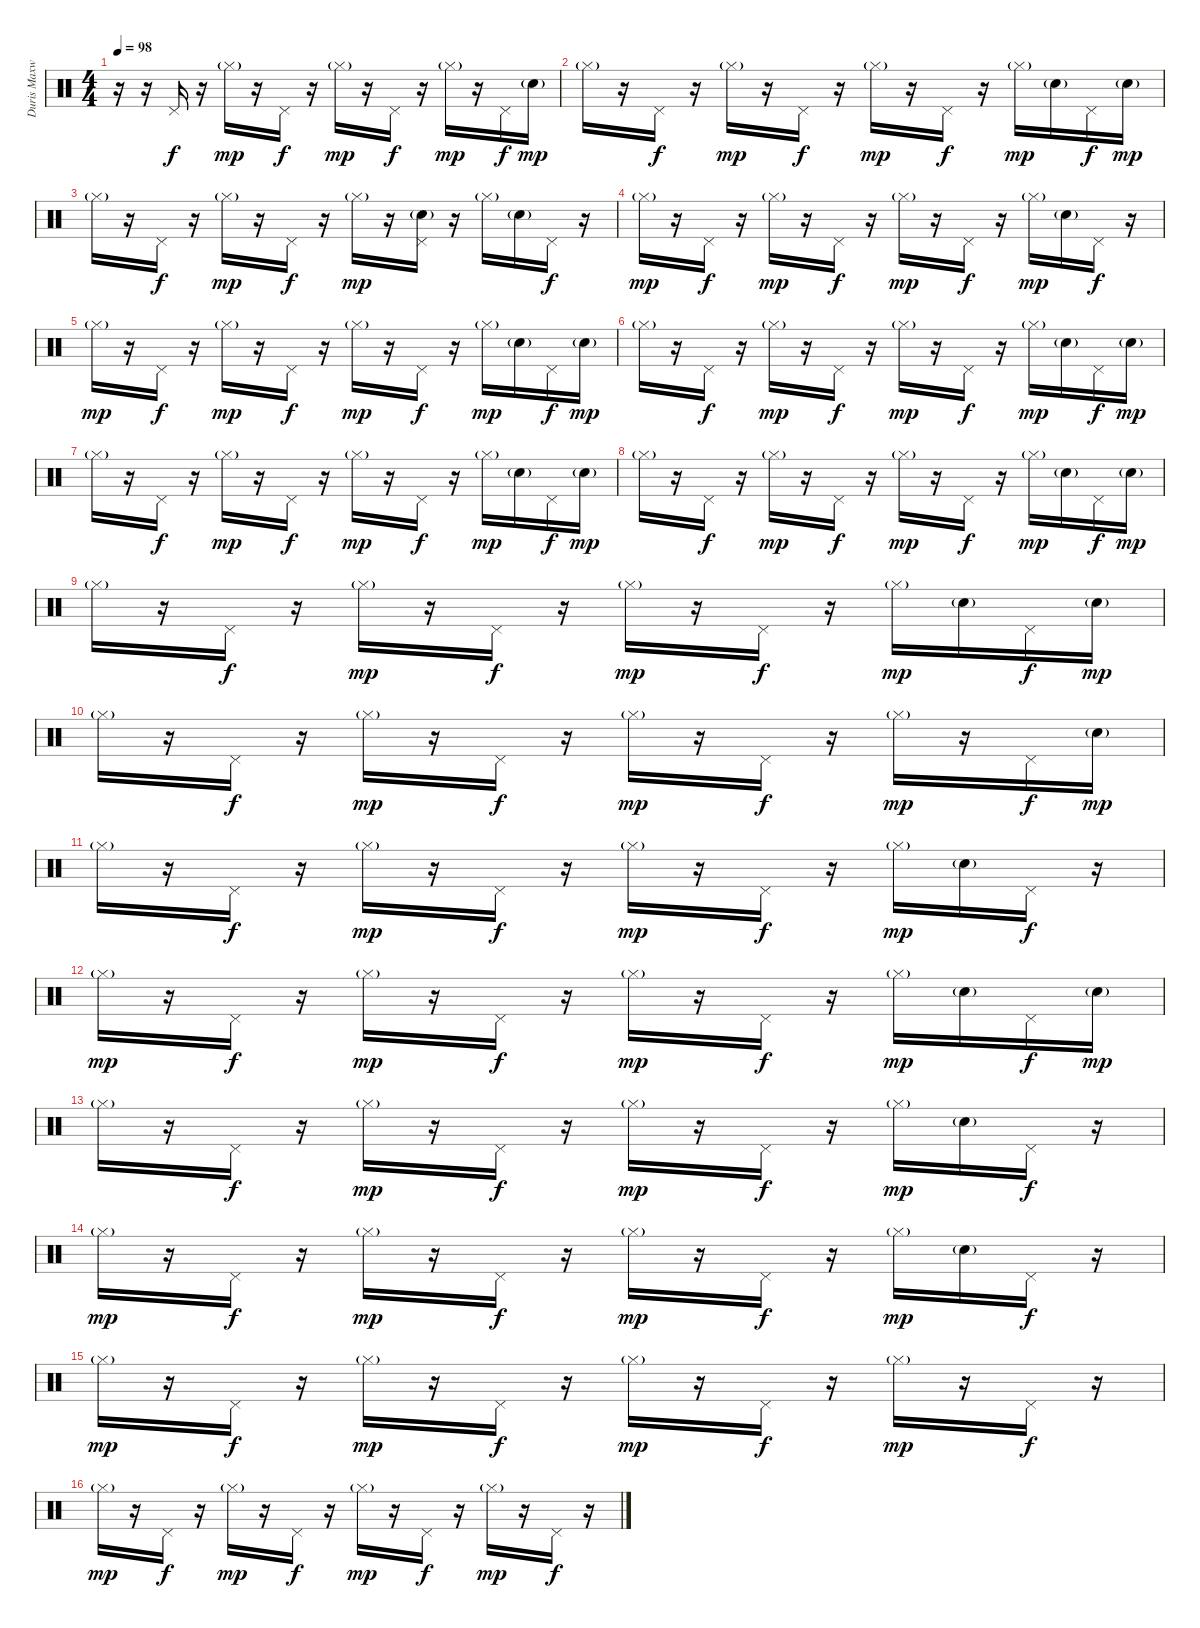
\track ("Duris Maxwell" "Duris Maxw") {instrument percussion}
\staff {score}
\articulation defaults
\ts (4 4)
\tempo 98
\clef neutral
\ks c
r.16{dy mp} r.16 "Pedal Hi-Hat (hit)".16{dy f} r.16 "Hi-Hat (closed)"{g}.16{dy mp} r.16 "Pedal Hi-Hat (hit)".16{dy f} r.16 "Hi-Hat (closed)"{g}.16{dy mp} r.16 "Pedal Hi-Hat (hit)".16{dy f} r.16 "Hi-Hat (closed)"{g}.16{dy mp} r.16 "Pedal Hi-Hat (hit)".16{dy f} "Snare (hit) 2"{g}.16{dy mp} |
"Hi-Hat (closed)"{g}.16 r.16 "Pedal Hi-Hat (hit)".16{dy f} r.16 "Hi-Hat (closed)"{g}.16{dy mp} r.16 "Pedal Hi-Hat (hit)".16{dy f} r.16 "Hi-Hat (closed)"{g}.16{dy mp} r.16 "Pedal Hi-Hat (hit)".16{dy f} r.16 "Hi-Hat (closed)"{g}.16{dy mp} "Snare (hit) 2"{g}.16 "Pedal Hi-Hat (hit)".16{dy f} "Snare (hit) 2"{g}.16{dy mp} |
"Hi-Hat (closed)"{g}.16 r.16 "Pedal Hi-Hat (hit)".16{dy f} r.16 "Hi-Hat (closed)"{g}.16{dy mp} r.16 "Pedal Hi-Hat (hit)".16{dy f} r.16 "Hi-Hat (closed)"{g}.16{dy mp} r.16 ("Pedal Hi-Hat (hit)" "Snare (hit) 2"{g}).16 r.16 "Hi-Hat (closed)"{g}.16 "Snare (hit) 2"{g}.16 "Pedal Hi-Hat (hit)".16{dy f} r.16 |
"Hi-Hat (closed)"{g}.16{dy mp} r.16 "Pedal Hi-Hat (hit)".16{dy f} r.16 "Hi-Hat (closed)"{g}.16{dy mp} r.16 "Pedal Hi-Hat (hit)".16{dy f} r.16 "Hi-Hat (closed)"{g}.16{dy mp} r.16 "Pedal Hi-Hat (hit)".16{dy f} r.16 "Hi-Hat (closed)"{g}.16{dy mp} "Snare (hit) 2"{g}.16 "Pedal Hi-Hat (hit)".16{dy f} r.16 |
"Hi-Hat (closed)"{g}.16{dy mp} r.16 "Pedal Hi-Hat (hit)".16{dy f} r.16 "Hi-Hat (closed)"{g}.16{dy mp} r.16 "Pedal Hi-Hat (hit)".16{dy f} r.16 "Hi-Hat (closed)"{g}.16{dy mp} r.16 "Pedal Hi-Hat (hit)".16{dy f} r.16 "Hi-Hat (closed)"{g}.16{dy mp} "Snare (hit) 2"{g}.16 "Pedal Hi-Hat (hit)".16{dy f} "Snare (hit) 2"{g}.16{dy mp} |
"Hi-Hat (closed)"{g}.16 r.16 "Pedal Hi-Hat (hit)".16{dy f} r.16 "Hi-Hat (closed)"{g}.16{dy mp} r.16 "Pedal Hi-Hat (hit)".16{dy f} r.16 "Hi-Hat (closed)"{g}.16{dy mp} r.16 "Pedal Hi-Hat (hit)".16{dy f} r.16 "Hi-Hat (closed)"{g}.16{dy mp} "Snare (hit) 2"{g}.16 "Pedal Hi-Hat (hit)".16{dy f} "Snare (hit) 2"{g}.16{dy mp} |
"Hi-Hat (closed)"{g}.16 r.16 "Pedal Hi-Hat (hit)".16{dy f} r.16 "Hi-Hat (closed)"{g}.16{dy mp} r.16 "Pedal Hi-Hat (hit)".16{dy f} r.16 "Hi-Hat (closed)"{g}.16{dy mp} r.16 "Pedal Hi-Hat (hit)".16{dy f} r.16 "Hi-Hat (closed)"{g}.16{dy mp} "Snare (hit) 2"{g}.16 "Pedal Hi-Hat (hit)".16{dy f} "Snare (hit) 2"{g}.16{dy mp} |
"Hi-Hat (closed)"{g}.16 r.16 "Pedal Hi-Hat (hit)".16{dy f} r.16 "Hi-Hat (closed)"{g}.16{dy mp} r.16 "Pedal Hi-Hat (hit)".16{dy f} r.16 "Hi-Hat (closed)"{g}.16{dy mp} r.16 "Pedal Hi-Hat (hit)".16{dy f} r.16 "Hi-Hat (closed)"{g}.16{dy mp} "Snare (hit) 2"{g}.16 "Pedal Hi-Hat (hit)".16{dy f} "Snare (hit) 2"{g}.16{dy mp} |
"Hi-Hat (closed)"{g}.16 r.16 "Pedal Hi-Hat (hit)".16{dy f} r.16 "Hi-Hat (closed)"{g}.16{dy mp} r.16 "Pedal Hi-Hat (hit)".16{dy f} r.16 "Hi-Hat (closed)"{g}.16{dy mp} r.16 "Pedal Hi-Hat (hit)".16{dy f} r.16 "Hi-Hat (closed)"{g}.16{dy mp} "Snare (hit) 2"{g}.16 "Pedal Hi-Hat (hit)".16{dy f} "Snare (hit) 2"{g}.16{dy mp} |
"Hi-Hat (closed)"{g}.16 r.16 "Pedal Hi-Hat (hit)".16{dy f} r.16 "Hi-Hat (closed)"{g}.16{dy mp} r.16 "Pedal Hi-Hat (hit)".16{dy f} r.16 "Hi-Hat (closed)"{g}.16{dy mp} r.16 "Pedal Hi-Hat (hit)".16{dy f} r.16 "Hi-Hat (closed)"{g}.16{dy mp} r.16 "Pedal Hi-Hat (hit)".16{dy f} "Snare (hit) 2"{g}.16{dy mp} |
"Hi-Hat (closed)"{g}.16 r.16 "Pedal Hi-Hat (hit)".16{dy f} r.16 "Hi-Hat (closed)"{g}.16{dy mp} r.16 "Pedal Hi-Hat (hit)".16{dy f} r.16 "Hi-Hat (closed)"{g}.16{dy mp} r.16 "Pedal Hi-Hat (hit)".16{dy f} r.16 "Hi-Hat (closed)"{g}.16{dy mp} "Snare (hit) 2"{g}.16 "Pedal Hi-Hat (hit)".16{dy f} r.16 |
"Hi-Hat (closed)"{g}.16{dy mp} r.16 "Pedal Hi-Hat (hit)".16{dy f} r.16 "Hi-Hat (closed)"{g}.16{dy mp} r.16 "Pedal Hi-Hat (hit)".16{dy f} r.16 "Hi-Hat (closed)"{g}.16{dy mp} r.16 "Pedal Hi-Hat (hit)".16{dy f} r.16 "Hi-Hat (closed)"{g}.16{dy mp} "Snare (hit) 2"{g}.16 "Pedal Hi-Hat (hit)".16{dy f} "Snare (hit) 2"{g}.16{dy mp} |
"Hi-Hat (closed)"{g}.16 r.16 "Pedal Hi-Hat (hit)".16{dy f} r.16 "Hi-Hat (closed)"{g}.16{dy mp} r.16 "Pedal Hi-Hat (hit)".16{dy f} r.16 "Hi-Hat (closed)"{g}.16{dy mp} r.16 "Pedal Hi-Hat (hit)".16{dy f} r.16 "Hi-Hat (closed)"{g}.16{dy mp} "Snare (hit) 2"{g}.16 "Pedal Hi-Hat (hit)".16{dy f} r.16 |
"Hi-Hat (closed)"{g}.16{dy mp} r.16 "Pedal Hi-Hat (hit)".16{dy f} r.16 "Hi-Hat (closed)"{g}.16{dy mp} r.16 "Pedal Hi-Hat (hit)".16{dy f} r.16 "Hi-Hat (closed)"{g}.16{dy mp} r.16 "Pedal Hi-Hat (hit)".16{dy f} r.16 "Hi-Hat (closed)"{g}.16{dy mp} "Snare (hit) 2"{g}.16 "Pedal Hi-Hat (hit)".16{dy f} r.16 |
"Hi-Hat (closed)"{g}.16{dy mp} r.16 "Pedal Hi-Hat (hit)".16{dy f} r.16 "Hi-Hat (closed)"{g}.16{dy mp} r.16 "Pedal Hi-Hat (hit)".16{dy f} r.16 "Hi-Hat (closed)"{g}.16{dy mp} r.16 "Pedal Hi-Hat (hit)".16{dy f} r.16 "Hi-Hat (closed)"{g}.16{dy mp} r.16 "Pedal Hi-Hat (hit)".16{dy f} r.16 |
"Hi-Hat (closed)"{g}.16{dy mp} r.16 "Pedal Hi-Hat (hit)".16{dy f} r.16 "Hi-Hat (closed)"{g}.16{dy mp} r.16 "Pedal Hi-Hat (hit)".16{dy f} r.16 "Hi-Hat (closed)"{g}.16{dy mp} r.16 "Pedal Hi-Hat (hit)".16{dy f} r.16 "Hi-Hat (closed)"{g}.16{dy mp} r.16 "Pedal Hi-Hat (hit)".16{dy f} r.16
